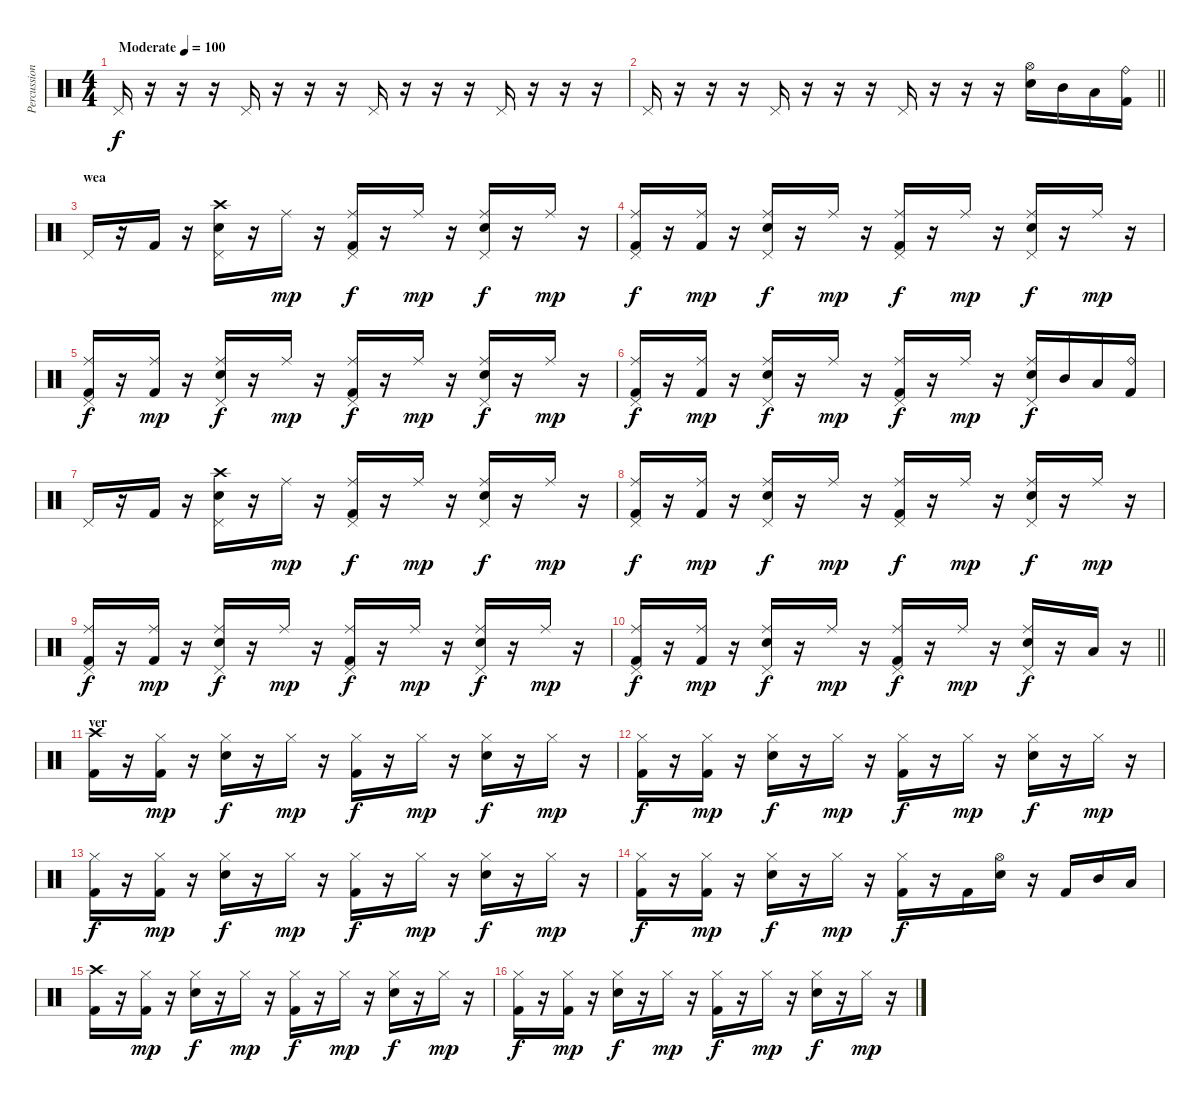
\track ("Percussion" "Percussion") {instrument percussion}
\staff {score}
\articulation defaults
\ts (4 4)
\tempo (100 "Moderate")
\clef neutral
\ks c "Pedal Hi-Hat (hit)".16{dy f}
r.16 r.16 r.16 "Pedal Hi-Hat (hit)".16 r.16 r.16 r.16 "Pedal Hi-Hat (hit)".16 r.16 r.16 r.16 "Pedal Hi-Hat (hit)".16 r.16 r.16 r.16 |
\barLineRight lightlight "Pedal Hi-Hat (hit)".16
r.16 r.16 r.16 "Pedal Hi-Hat (hit)".16 r.16 r.16 r.16 "Pedal Hi-Hat (hit)".16 r.16 r.16 r.16 ("Hi-Hat (open)" "Electric Snare (hit)").16 "Mid Tom (hit)".16 "Low Tom (hit)".16 ("Ride (bell)" "Kick (hit) 2").16 |
\section ("" "wea")
"Pedal Hi-Hat (hit)".16 r.16 "Kick (hit) 2".16 r.16 ("Crash high (hit)" "Electric Snare (hit)" "Pedal Hi-Hat (hit)").16 r.16 "Ride (middle)".16{dy mp} r.16 ("Ride (middle)" "Pedal Hi-Hat (hit)" "Kick (hit) 2").16{dy f} r.16 "Ride (middle)".16{dy mp} r.16 ("Ride (middle)" "Electric Snare (hit)" "Pedal Hi-Hat (hit)").16{dy f} r.16 "Ride (middle)".16{dy mp} r.16 |
("Ride (middle)" "Pedal Hi-Hat (hit)" "Kick (hit) 2").16{dy f} r.16 ("Ride (middle)" "Kick (hit) 2").16{dy mp} r.16 ("Ride (middle)" "Electric Snare (hit)" "Pedal Hi-Hat (hit)").16{dy f} r.16 "Ride (middle)".16{dy mp} r.16 ("Ride (middle)" "Pedal Hi-Hat (hit)" "Kick (hit) 2").16{dy f} r.16 "Ride (middle)".16{dy mp} r.16 ("Ride (middle)" "Electric Snare (hit)" "Pedal Hi-Hat (hit)").16{dy f} r.16 "Ride (middle)".16{dy mp} r.16 |
("Ride (middle)" "Pedal Hi-Hat (hit)" "Kick (hit) 2").16{dy f} r.16 ("Ride (middle)" "Kick (hit) 2").16{dy mp} r.16 ("Ride (middle)" "Electric Snare (hit)" "Pedal Hi-Hat (hit)").16{dy f} r.16 "Ride (middle)".16{dy mp} r.16 ("Ride (middle)" "Pedal Hi-Hat (hit)" "Kick (hit) 2").16{dy f} r.16 "Ride (middle)".16{dy mp} r.16 ("Ride (middle)" "Electric Snare (hit)" "Pedal Hi-Hat (hit)").16{dy f} r.16 "Ride (middle)".16{dy mp} r.16 |
("Ride (middle)" "Pedal Hi-Hat (hit)" "Kick (hit) 2").16{dy f} r.16 ("Ride (middle)" "Kick (hit) 2").16{dy mp} r.16 ("Ride (middle)" "Electric Snare (hit)" "Pedal Hi-Hat (hit)").16{dy f} r.16 "Ride (middle)".16{dy mp} r.16 ("Ride (middle)" "Pedal Hi-Hat (hit)" "Kick (hit) 2").16{dy f} r.16 "Ride (middle)".16{dy mp} r.16 ("Ride (middle)" "Electric Snare (hit)" "Pedal Hi-Hat (hit)").16{dy f} "Mid Tom (hit)".16 "Low Tom (hit)".16 ("Ride (bell)" "Kick (hit) 2").16 |
"Pedal Hi-Hat (hit)".16 r.16 "Kick (hit) 2".16 r.16 ("Crash high (hit)" "Electric Snare (hit)" "Pedal Hi-Hat (hit)").16 r.16 "Ride (middle)".16{dy mp} r.16 ("Ride (middle)" "Pedal Hi-Hat (hit)" "Kick (hit) 2").16{dy f} r.16 "Ride (middle)".16{dy mp} r.16 ("Ride (middle)" "Electric Snare (hit)" "Pedal Hi-Hat (hit)").16{dy f} r.16 "Ride (middle)".16{dy mp} r.16 |
("Ride (middle)" "Pedal Hi-Hat (hit)" "Kick (hit) 2").16{dy f} r.16 ("Ride (middle)" "Kick (hit) 2").16{dy mp} r.16 ("Ride (middle)" "Electric Snare (hit)" "Pedal Hi-Hat (hit)").16{dy f} r.16 "Ride (middle)".16{dy mp} r.16 ("Ride (middle)" "Pedal Hi-Hat (hit)" "Kick (hit) 2").16{dy f} r.16 "Ride (middle)".16{dy mp} r.16 ("Ride (middle)" "Electric Snare (hit)" "Pedal Hi-Hat (hit)").16{dy f} r.16 "Ride (middle)".16{dy mp} r.16 |
("Ride (middle)" "Pedal Hi-Hat (hit)" "Kick (hit) 2").16{dy f} r.16 ("Ride (middle)" "Kick (hit) 2").16{dy mp} r.16 ("Ride (middle)" "Electric Snare (hit)" "Pedal Hi-Hat (hit)").16{dy f} r.16 "Ride (middle)".16{dy mp} r.16 ("Ride (middle)" "Pedal Hi-Hat (hit)" "Kick (hit) 2").16{dy f} r.16 "Ride (middle)".16{dy mp} r.16 ("Ride (middle)" "Electric Snare (hit)" "Pedal Hi-Hat (hit)").16{dy f} r.16 "Ride (middle)".16{dy mp} r.16 |
\barLineRight lightlight
("Ride (middle)" "Pedal Hi-Hat (hit)" "Kick (hit) 2").16{dy f} r.16 ("Ride (middle)" "Kick (hit) 2").16{dy mp} r.16 ("Ride (middle)" "Electric Snare (hit)" "Pedal Hi-Hat (hit)").16{dy f} r.16 "Ride (middle)".16{dy mp} r.16 ("Ride (middle)" "Pedal Hi-Hat (hit)" "Kick (hit) 2").16{dy f} r.16 "Ride (middle)".16{dy mp} r.16 ("Ride (middle)" "Electric Snare (hit)" "Pedal Hi-Hat (hit)").16{dy f} r.16 "Low Tom (hit)".16 r.16 |
\section ("" "ver")
("Crash high (hit)" "Kick (hit) 2").16 r.16 ("Hi-Hat (closed)" "Kick (hit) 2").16{dy mp} r.16 ("Hi-Hat (closed)" "Electric Snare (hit)").16{dy f} r.16 "Hi-Hat (closed)".16{dy mp} r.16 ("Hi-Hat (closed)" "Kick (hit) 2").16{dy f} r.16 "Hi-Hat (closed)".16{dy mp} r.16 ("Hi-Hat (closed)" "Electric Snare (hit)").16{dy f} r.16 "Hi-Hat (closed)".16{dy mp} r.16 |
("Hi-Hat (closed)" "Kick (hit) 2").16{dy f} r.16 ("Hi-Hat (closed)" "Kick (hit) 2").16{dy mp} r.16 ("Hi-Hat (closed)" "Electric Snare (hit)").16{dy f} r.16 "Hi-Hat (closed)".16{dy mp} r.16 ("Hi-Hat (closed)" "Kick (hit) 2").16{dy f} r.16 "Hi-Hat (closed)".16{dy mp} r.16 ("Hi-Hat (closed)" "Electric Snare (hit)").16{dy f} r.16 "Hi-Hat (closed)".16{dy mp} r.16 |
("Hi-Hat (closed)" "Kick (hit) 2").16{dy f} r.16 ("Hi-Hat (closed)" "Kick (hit) 2").16{dy mp} r.16 ("Hi-Hat (closed)" "Electric Snare (hit)").16{dy f} r.16 "Hi-Hat (closed)".16{dy mp} r.16 ("Hi-Hat (closed)" "Kick (hit) 2").16{dy f} r.16 "Hi-Hat (closed)".16{dy mp} r.16 ("Hi-Hat (closed)" "Electric Snare (hit)").16{dy f} r.16 "Hi-Hat (closed)".16{dy mp} r.16 |
("Hi-Hat (closed)" "Kick (hit) 2").16{dy f} r.16 ("Hi-Hat (closed)" "Kick (hit) 2").16{dy mp} r.16 ("Hi-Hat (closed)" "Electric Snare (hit)").16{dy f} r.16 "Hi-Hat (closed)".16{dy mp} r.16 ("Hi-Hat (closed)" "Kick (hit) 2").16{dy f} r.16 "Kick (hit) 2".16 ("Hi-Hat (open)" "Electric Snare (hit)").16 r.16 "Kick (hit) 2".16 "Mid Tom (hit)".16 "Low Tom (hit)".16 |
("Crash high (hit)" "Kick (hit) 2").16 r.16 ("Hi-Hat (closed)" "Kick (hit) 2").16{dy mp} r.16 ("Hi-Hat (closed)" "Electric Snare (hit)").16{dy f} r.16 "Hi-Hat (closed)".16{dy mp} r.16 ("Hi-Hat (closed)" "Kick (hit) 2").16{dy f} r.16 "Hi-Hat (closed)".16{dy mp} r.16 ("Hi-Hat (closed)" "Electric Snare (hit)").16{dy f} r.16 "Hi-Hat (closed)".16{dy mp} r.16 |
("Hi-Hat (closed)" "Kick (hit) 2").16{dy f} r.16 ("Hi-Hat (closed)" "Kick (hit) 2").16{dy mp} r.16 ("Hi-Hat (closed)" "Electric Snare (hit)").16{dy f} r.16 "Hi-Hat (closed)".16{dy mp} r.16 ("Hi-Hat (closed)" "Kick (hit) 2").16{dy f} r.16 "Hi-Hat (closed)".16{dy mp} r.16 ("Hi-Hat (closed)" "Electric Snare (hit)").16{dy f} r.16 "Hi-Hat (closed)".16{dy mp} r.16
